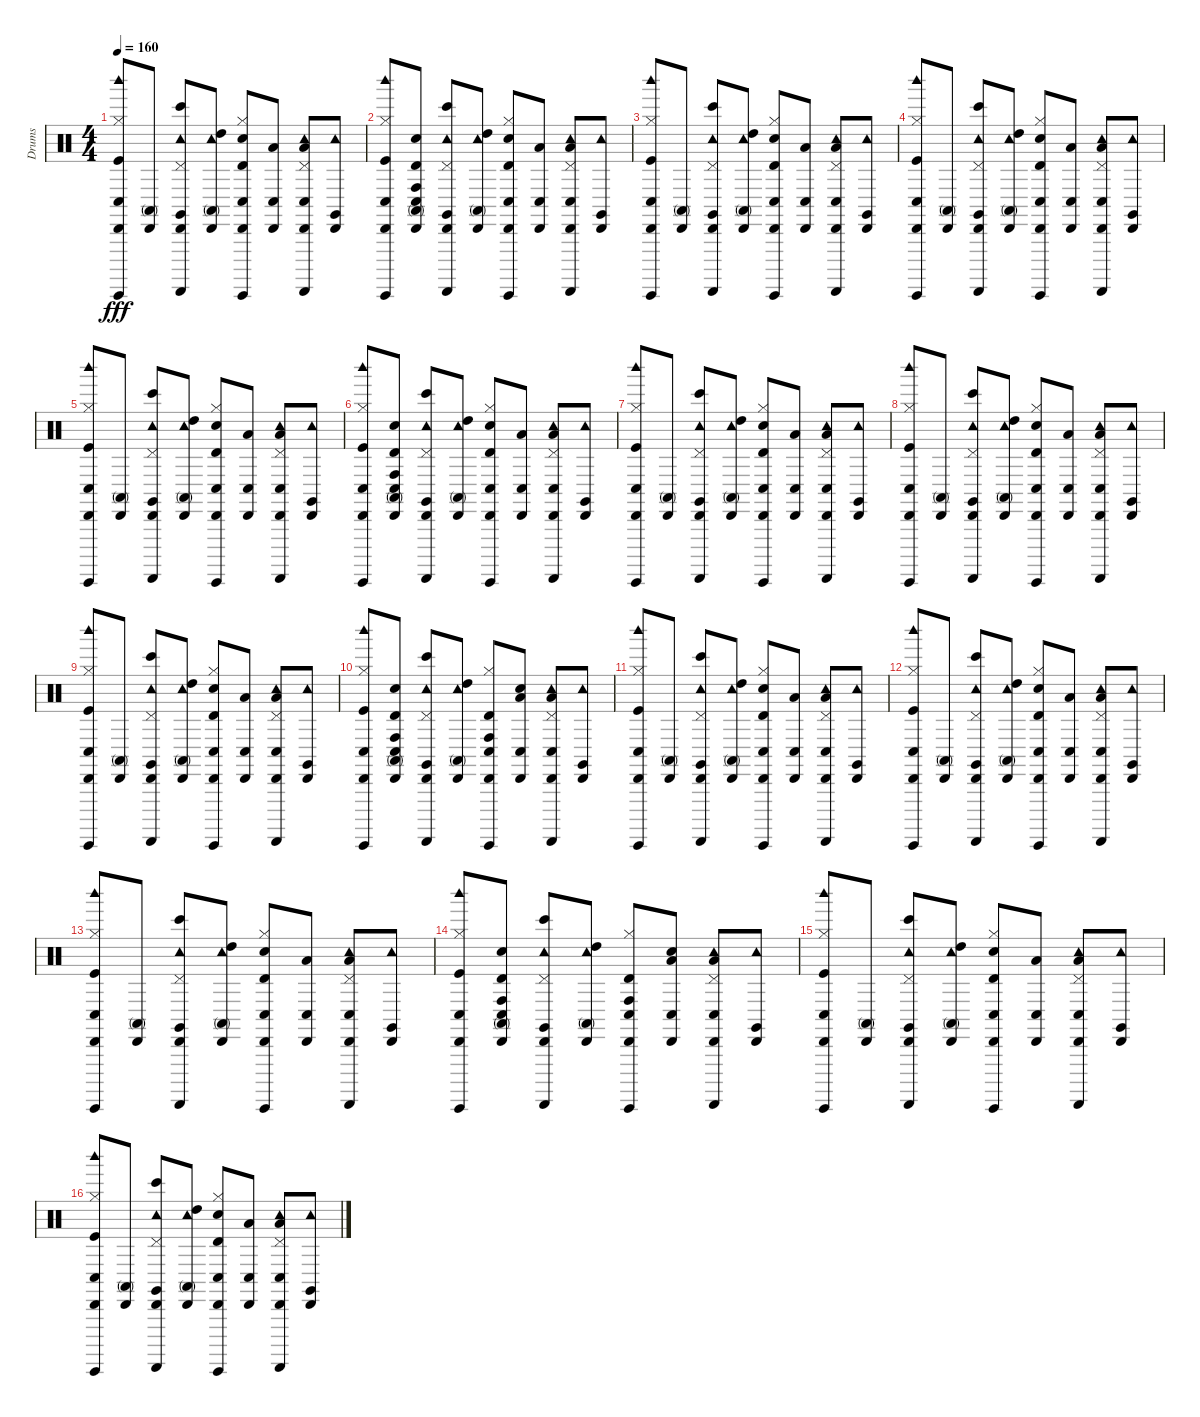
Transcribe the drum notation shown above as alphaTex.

\track ("Drums" "Drums") {instrument percussion}
\staff {score}
\articulation defaults
\ts (4 4)
\tempo 160
\clef neutral
\ks c
("Kick (hit)" "Cabasa (hit)" "Hi-Hat (closed)" "Guiro (hit)" "Woodblock high (hit)" "Conga low (hit)").8{dy fff} ("Cabasa (hit)" "Conga high (mute)").8 ("Tambourine (hit)" "Cabasa (hit)" "Pedal Hi-Hat (hit)" "Guiro (scrap-return)" "Claves (hit)" "Bongo High (hit)").8 ("Tambourine (hit)" "Cabasa (hit)" "High Tom (hit)" "Conga high (mute)").8 ("Electric Snare (hit)" "Cabasa (hit)" "Hi-Hat (closed)" "Guiro (hit)" "Timbale high (hit)" "Conga low (hit)").8 ("Cabasa (hit)" "Conga low (hit)" "Low Tom (hit)").8 ("Tambourine (hit)" "Cabasa (hit)" "Pedal Hi-Hat (hit)" "Guiro (scrap-return)" "Conga low (hit)" "Low Tom (hit)").8 ("Tambourine (hit)" "Cabasa (hit)" "Claves (hit)").8 |
("Kick (hit)" "Cabasa (hit)" "Hi-Hat (closed)" "Guiro (hit)" "Woodblock high (hit)" "Conga low (hit)").8 ("Cabasa (hit)" "Conga high (mute)" "Electric Snare (hit)" "Timbale high (hit)" "Conga low (hit)" "Conga high (hit)").8 ("Tambourine (hit)" "Cabasa (hit)" "Pedal Hi-Hat (hit)" "Guiro (scrap-return)" "Claves (hit)" "Bongo High (hit)").8 ("Tambourine (hit)" "Cabasa (hit)" "High Tom (hit)" "Conga high (mute)").8 ("Electric Snare (hit)" "Cabasa (hit)" "Hi-Hat (closed)" "Guiro (hit)" "Timbale high (hit)" "Conga low (hit)").8 ("Cabasa (hit)" "Conga low (hit)" "Low Tom (hit)").8 ("Tambourine (hit)" "Cabasa (hit)" "Pedal Hi-Hat (hit)" "Guiro (scrap-return)" "Conga low (hit)" "Low Tom (hit)").8 ("Tambourine (hit)" "Cabasa (hit)" "Claves (hit)").8 |
("Kick (hit)" "Cabasa (hit)" "Hi-Hat (closed)" "Guiro (hit)" "Woodblock high (hit)" "Conga low (hit)").8 ("Cabasa (hit)" "Conga high (mute)").8 ("Tambourine (hit)" "Cabasa (hit)" "Pedal Hi-Hat (hit)" "Guiro (scrap-return)" "Claves (hit)" "Bongo High (hit)").8 ("Tambourine (hit)" "Cabasa (hit)" "High Tom (hit)" "Conga high (mute)").8 ("Electric Snare (hit)" "Cabasa (hit)" "Hi-Hat (closed)" "Guiro (hit)" "Timbale high (hit)" "Conga low (hit)").8 ("Cabasa (hit)" "Conga low (hit)" "Low Tom (hit)").8 ("Tambourine (hit)" "Cabasa (hit)" "Pedal Hi-Hat (hit)" "Guiro (scrap-return)" "Conga low (hit)" "Low Tom (hit)").8 ("Tambourine (hit)" "Cabasa (hit)" "Claves (hit)").8 |
("Kick (hit)" "Cabasa (hit)" "Hi-Hat (closed)" "Guiro (hit)" "Woodblock high (hit)" "Conga low (hit)").8 ("Cabasa (hit)" "Conga high (mute)").8 ("Tambourine (hit)" "Cabasa (hit)" "Pedal Hi-Hat (hit)" "Guiro (scrap-return)" "Claves (hit)" "Bongo High (hit)").8 ("Tambourine (hit)" "Cabasa (hit)" "High Tom (hit)" "Conga high (mute)").8 ("Electric Snare (hit)" "Cabasa (hit)" "Hi-Hat (closed)" "Guiro (hit)" "Timbale high (hit)" "Conga low (hit)").8 ("Cabasa (hit)" "Conga low (hit)" "Low Tom (hit)").8 ("Tambourine (hit)" "Cabasa (hit)" "Pedal Hi-Hat (hit)" "Guiro (scrap-return)" "Conga low (hit)" "Low Tom (hit)").8 ("Tambourine (hit)" "Cabasa (hit)" "Claves (hit)").8 |
("Kick (hit)" "Cabasa (hit)" "Hi-Hat (closed)" "Guiro (hit)" "Woodblock high (hit)" "Conga low (hit)").8 ("Cabasa (hit)" "Conga high (mute)").8 ("Tambourine (hit)" "Cabasa (hit)" "Pedal Hi-Hat (hit)" "Guiro (scrap-return)" "Claves (hit)" "Bongo High (hit)").8 ("Tambourine (hit)" "Cabasa (hit)" "High Tom (hit)" "Conga high (mute)").8 ("Electric Snare (hit)" "Cabasa (hit)" "Hi-Hat (closed)" "Guiro (hit)" "Timbale high (hit)" "Conga low (hit)").8 ("Cabasa (hit)" "Conga low (hit)" "Low Tom (hit)").8 ("Tambourine (hit)" "Cabasa (hit)" "Pedal Hi-Hat (hit)" "Guiro (scrap-return)" "Conga low (hit)" "Low Tom (hit)").8 ("Tambourine (hit)" "Cabasa (hit)" "Claves (hit)").8 |
("Kick (hit)" "Cabasa (hit)" "Hi-Hat (closed)" "Guiro (hit)" "Woodblock high (hit)" "Conga low (hit)").8 ("Cabasa (hit)" "Conga high (mute)" "Electric Snare (hit)" "Timbale high (hit)" "Conga low (hit)" "Conga high (hit)").8 ("Tambourine (hit)" "Cabasa (hit)" "Pedal Hi-Hat (hit)" "Guiro (scrap-return)" "Claves (hit)" "Bongo High (hit)").8 ("Tambourine (hit)" "Cabasa (hit)" "High Tom (hit)" "Conga high (mute)").8 ("Electric Snare (hit)" "Cabasa (hit)" "Hi-Hat (closed)" "Guiro (hit)" "Timbale high (hit)" "Conga low (hit)").8 ("Cabasa (hit)" "Conga low (hit)" "Low Tom (hit)").8 ("Tambourine (hit)" "Cabasa (hit)" "Pedal Hi-Hat (hit)" "Guiro (scrap-return)" "Conga low (hit)" "Low Tom (hit)").8 ("Tambourine (hit)" "Cabasa (hit)" "Claves (hit)").8 |
("Kick (hit)" "Cabasa (hit)" "Hi-Hat (closed)" "Guiro (hit)" "Woodblock high (hit)" "Conga low (hit)").8 ("Cabasa (hit)" "Conga high (mute)").8 ("Tambourine (hit)" "Cabasa (hit)" "Pedal Hi-Hat (hit)" "Guiro (scrap-return)" "Claves (hit)" "Bongo High (hit)").8 ("Tambourine (hit)" "Cabasa (hit)" "High Tom (hit)" "Conga high (mute)").8 ("Electric Snare (hit)" "Cabasa (hit)" "Hi-Hat (closed)" "Guiro (hit)" "Timbale high (hit)" "Conga low (hit)").8 ("Cabasa (hit)" "Conga low (hit)" "Low Tom (hit)").8 ("Tambourine (hit)" "Cabasa (hit)" "Pedal Hi-Hat (hit)" "Guiro (scrap-return)" "Conga low (hit)" "Low Tom (hit)").8 ("Tambourine (hit)" "Cabasa (hit)" "Claves (hit)").8 |
("Kick (hit)" "Cabasa (hit)" "Hi-Hat (closed)" "Guiro (hit)" "Woodblock high (hit)" "Conga low (hit)").8 ("Cabasa (hit)" "Conga high (mute)").8 ("Tambourine (hit)" "Cabasa (hit)" "Pedal Hi-Hat (hit)" "Guiro (scrap-return)" "Claves (hit)" "Bongo High (hit)").8 ("Tambourine (hit)" "Cabasa (hit)" "High Tom (hit)" "Conga high (mute)").8 ("Electric Snare (hit)" "Cabasa (hit)" "Hi-Hat (closed)" "Guiro (hit)" "Timbale high (hit)" "Conga low (hit)").8 ("Cabasa (hit)" "Conga low (hit)" "Low Tom (hit)").8 ("Tambourine (hit)" "Cabasa (hit)" "Pedal Hi-Hat (hit)" "Guiro (scrap-return)" "Conga low (hit)" "Low Tom (hit)").8 ("Tambourine (hit)" "Cabasa (hit)" "Claves (hit)").8 |
("Kick (hit)" "Cabasa (hit)" "Hi-Hat (closed)" "Guiro (hit)" "Woodblock high (hit)" "Conga low (hit)").8 ("Cabasa (hit)" "Conga high (mute)").8 ("Tambourine (hit)" "Cabasa (hit)" "Pedal Hi-Hat (hit)" "Guiro (scrap-return)" "Claves (hit)" "Bongo High (hit)").8 ("Tambourine (hit)" "Cabasa (hit)" "High Tom (hit)" "Conga high (mute)").8 ("Electric Snare (hit)" "Cabasa (hit)" "Hi-Hat (closed)" "Guiro (hit)" "Timbale high (hit)" "Conga low (hit)").8 ("Cabasa (hit)" "Conga low (hit)" "Low Tom (hit)").8 ("Tambourine (hit)" "Cabasa (hit)" "Pedal Hi-Hat (hit)" "Guiro (scrap-return)" "Conga low (hit)" "Low Tom (hit)").8 ("Tambourine (hit)" "Cabasa (hit)" "Claves (hit)").8 |
("Kick (hit)" "Cabasa (hit)" "Hi-Hat (closed)" "Guiro (hit)" "Woodblock high (hit)" "Conga low (hit)").8 ("Cabasa (hit)" "Conga high (mute)" "Electric Snare (hit)" "Timbale high (hit)" "Conga low (hit)" "Conga high (hit)").8 ("Tambourine (hit)" "Cabasa (hit)" "Pedal Hi-Hat (hit)" "Guiro (scrap-return)" "Claves (hit)" "Bongo High (hit)").8 ("Tambourine (hit)" "Cabasa (hit)" "High Tom (hit)" "Conga high (mute)").8 ("Cabasa (hit)" "Hi-Hat (closed)" "Guiro (hit)" "Timbale high (hit)" "Conga low (hit)" "Conga high (hit)").8 ("Cabasa (hit)" "Conga low (hit)" "Low Tom (hit)" "Electric Snare (hit)").8 ("Tambourine (hit)" "Cabasa (hit)" "Pedal Hi-Hat (hit)" "Guiro (scrap-return)" "Conga low (hit)" "Low Tom (hit)").8 ("Tambourine (hit)" "Cabasa (hit)" "Claves (hit)").8 |
("Kick (hit)" "Cabasa (hit)" "Hi-Hat (closed)" "Guiro (hit)" "Woodblock high (hit)" "Conga low (hit)").8 ("Cabasa (hit)" "Conga high (mute)").8 ("Tambourine (hit)" "Cabasa (hit)" "Pedal Hi-Hat (hit)" "Guiro (scrap-return)" "Claves (hit)" "Bongo High (hit)").8 ("Tambourine (hit)" "Cabasa (hit)" "High Tom (hit)" "Conga high (mute)").8 ("Electric Snare (hit)" "Cabasa (hit)" "Hi-Hat (closed)" "Guiro (hit)" "Timbale high (hit)" "Conga low (hit)").8 ("Cabasa (hit)" "Conga low (hit)" "Low Tom (hit)").8 ("Tambourine (hit)" "Cabasa (hit)" "Pedal Hi-Hat (hit)" "Guiro (scrap-return)" "Conga low (hit)" "Low Tom (hit)").8 ("Tambourine (hit)" "Cabasa (hit)" "Claves (hit)").8 |
("Kick (hit)" "Cabasa (hit)" "Hi-Hat (closed)" "Guiro (hit)" "Woodblock high (hit)" "Conga low (hit)").8 ("Cabasa (hit)" "Conga high (mute)").8 ("Tambourine (hit)" "Cabasa (hit)" "Pedal Hi-Hat (hit)" "Guiro (scrap-return)" "Claves (hit)" "Bongo High (hit)").8 ("Tambourine (hit)" "Cabasa (hit)" "High Tom (hit)" "Conga high (mute)").8 ("Electric Snare (hit)" "Cabasa (hit)" "Hi-Hat (closed)" "Guiro (hit)" "Timbale high (hit)" "Conga low (hit)").8 ("Cabasa (hit)" "Conga low (hit)" "Low Tom (hit)").8 ("Tambourine (hit)" "Cabasa (hit)" "Pedal Hi-Hat (hit)" "Guiro (scrap-return)" "Conga low (hit)" "Low Tom (hit)").8 ("Tambourine (hit)" "Cabasa (hit)" "Claves (hit)").8 |
("Kick (hit)" "Cabasa (hit)" "Hi-Hat (closed)" "Guiro (hit)" "Woodblock high (hit)" "Conga low (hit)").8 ("Cabasa (hit)" "Conga high (mute)").8 ("Tambourine (hit)" "Cabasa (hit)" "Pedal Hi-Hat (hit)" "Guiro (scrap-return)" "Claves (hit)" "Bongo High (hit)").8 ("Tambourine (hit)" "Cabasa (hit)" "High Tom (hit)" "Conga high (mute)").8 ("Electric Snare (hit)" "Cabasa (hit)" "Hi-Hat (closed)" "Guiro (hit)" "Timbale high (hit)" "Conga low (hit)").8 ("Cabasa (hit)" "Conga low (hit)" "Low Tom (hit)").8 ("Tambourine (hit)" "Cabasa (hit)" "Pedal Hi-Hat (hit)" "Guiro (scrap-return)" "Conga low (hit)" "Low Tom (hit)").8 ("Tambourine (hit)" "Cabasa (hit)" "Claves (hit)").8 |
("Kick (hit)" "Cabasa (hit)" "Hi-Hat (closed)" "Guiro (hit)" "Woodblock high (hit)" "Conga low (hit)").8 ("Cabasa (hit)" "Conga high (mute)" "Electric Snare (hit)" "Timbale high (hit)" "Conga low (hit)" "Conga high (hit)").8 ("Tambourine (hit)" "Cabasa (hit)" "Pedal Hi-Hat (hit)" "Guiro (scrap-return)" "Claves (hit)" "Bongo High (hit)").8 ("Tambourine (hit)" "Cabasa (hit)" "High Tom (hit)" "Conga high (mute)").8 ("Cabasa (hit)" "Hi-Hat (closed)" "Guiro (hit)" "Timbale high (hit)" "Conga low (hit)" "Conga high (hit)").8 ("Cabasa (hit)" "Conga low (hit)" "Low Tom (hit)" "Electric Snare (hit)").8 ("Tambourine (hit)" "Cabasa (hit)" "Pedal Hi-Hat (hit)" "Guiro (scrap-return)" "Conga low (hit)" "Low Tom (hit)").8 ("Tambourine (hit)" "Cabasa (hit)" "Claves (hit)").8 |
("Kick (hit)" "Cabasa (hit)" "Hi-Hat (closed)" "Guiro (hit)" "Woodblock high (hit)" "Conga low (hit)").8 ("Cabasa (hit)" "Conga high (mute)").8 ("Tambourine (hit)" "Cabasa (hit)" "Pedal Hi-Hat (hit)" "Guiro (scrap-return)" "Claves (hit)" "Bongo High (hit)").8 ("Tambourine (hit)" "Cabasa (hit)" "High Tom (hit)" "Conga high (mute)").8 ("Electric Snare (hit)" "Cabasa (hit)" "Hi-Hat (closed)" "Guiro (hit)" "Timbale high (hit)" "Conga low (hit)").8 ("Cabasa (hit)" "Conga low (hit)" "Low Tom (hit)").8 ("Tambourine (hit)" "Cabasa (hit)" "Pedal Hi-Hat (hit)" "Guiro (scrap-return)" "Conga low (hit)" "Low Tom (hit)").8 ("Tambourine (hit)" "Cabasa (hit)" "Claves (hit)").8 |
("Kick (hit)" "Cabasa (hit)" "Hi-Hat (closed)" "Guiro (hit)" "Woodblock high (hit)" "Conga low (hit)").8 ("Cabasa (hit)" "Conga high (mute)").8 ("Tambourine (hit)" "Cabasa (hit)" "Pedal Hi-Hat (hit)" "Guiro (scrap-return)" "Claves (hit)" "Bongo High (hit)").8 ("Tambourine (hit)" "Cabasa (hit)" "High Tom (hit)" "Conga high (mute)").8 ("Electric Snare (hit)" "Cabasa (hit)" "Hi-Hat (closed)" "Guiro (hit)" "Timbale high (hit)" "Conga low (hit)").8 ("Cabasa (hit)" "Conga low (hit)" "Low Tom (hit)").8 ("Tambourine (hit)" "Cabasa (hit)" "Pedal Hi-Hat (hit)" "Guiro (scrap-return)" "Conga low (hit)" "Low Tom (hit)").8 ("Tambourine (hit)" "Cabasa (hit)" "Claves (hit)").8
